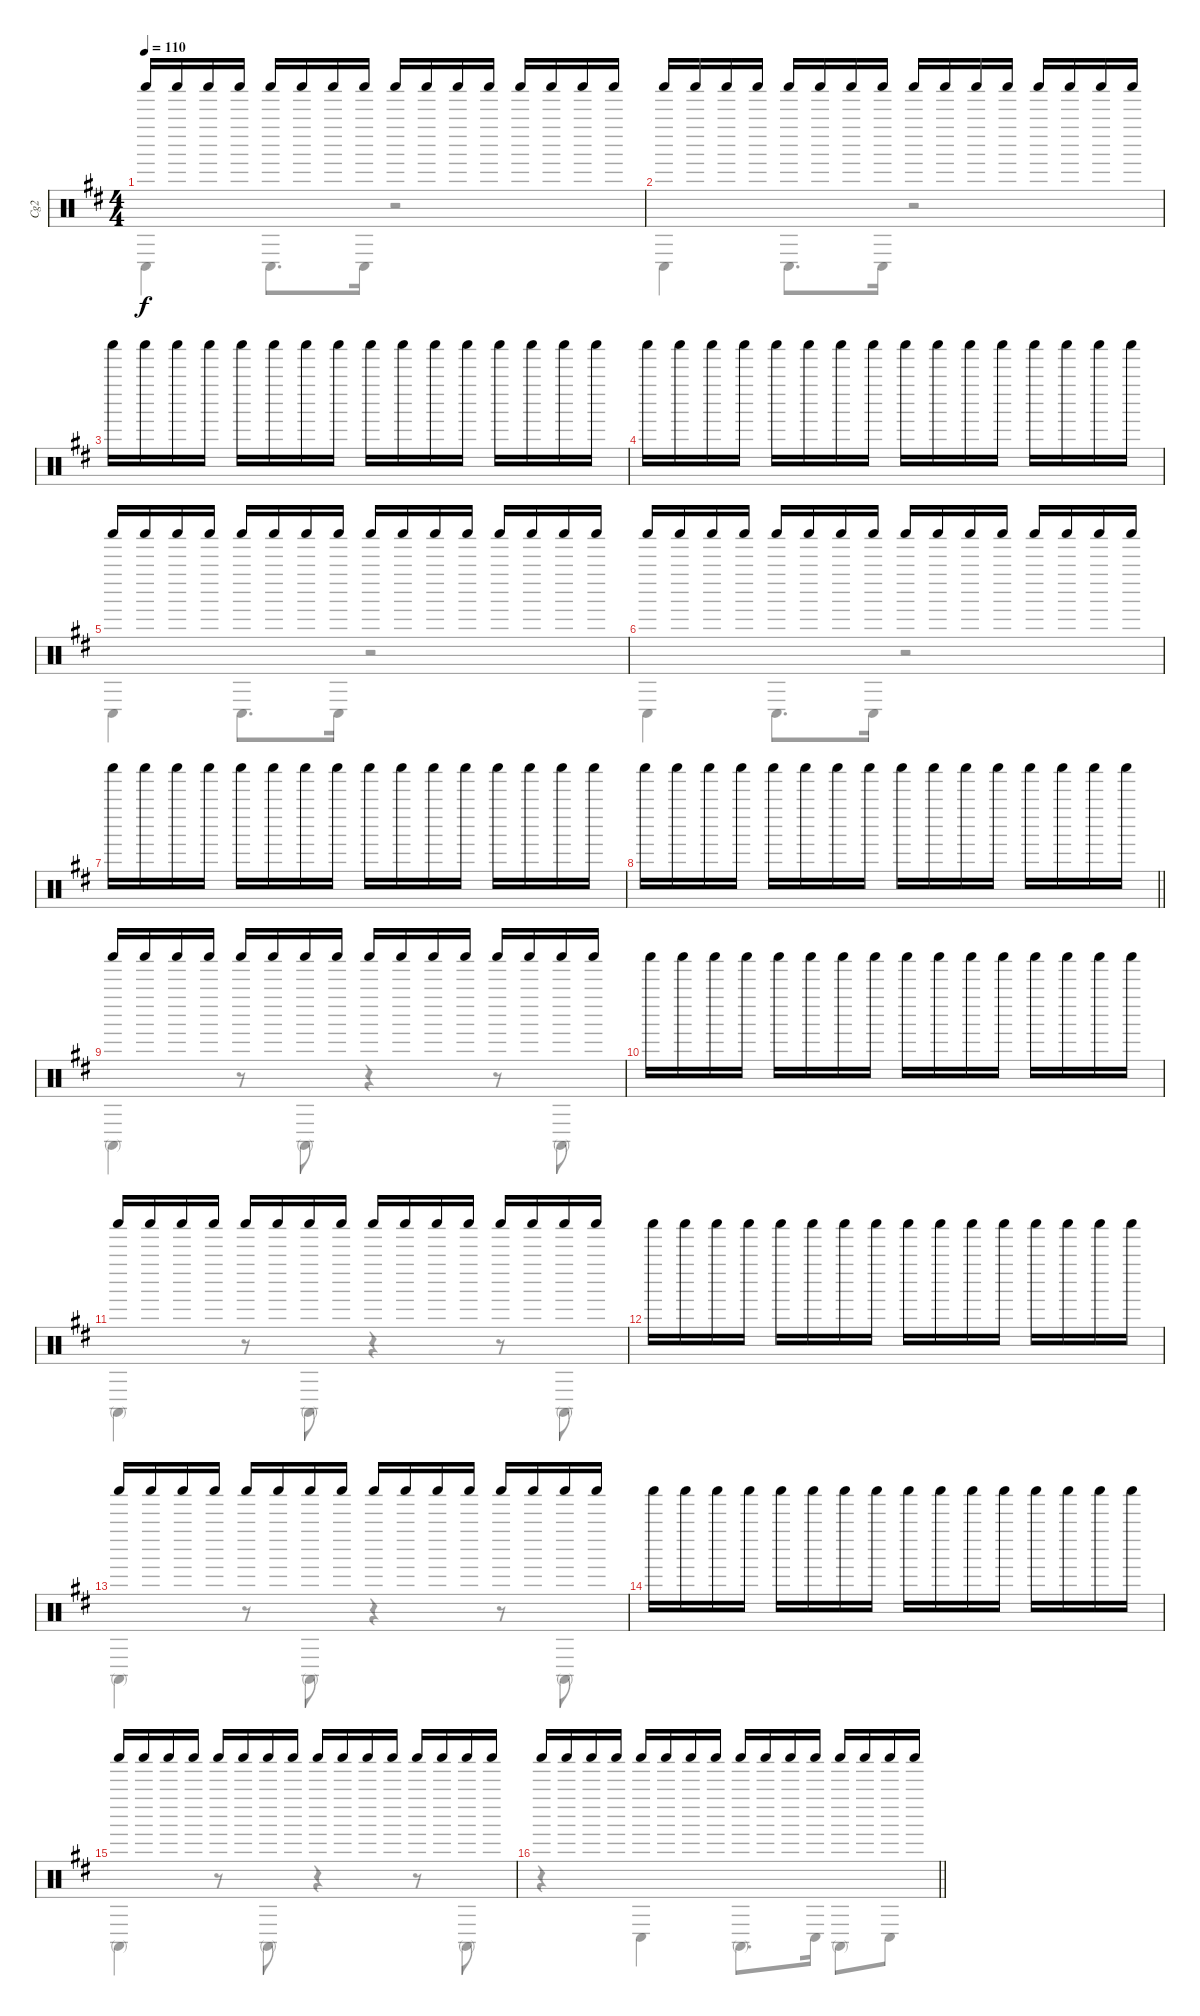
\track ("Cg2" "Cg2") {instrument percussion}
\staff {score}
\articulation defaults
\voice
\ts (4 4)
\tempo 110
\clef neutral
\ks d "Shaker (hit)".16{dy f} "Shaker (hit)".16 "Shaker (hit)".16 "Shaker (hit)".16 "Shaker (hit)".16 "Shaker (hit)".16 "Shaker (hit)".16 "Shaker (hit)".16 "Shaker (hit)".16 "Shaker (hit)".16 "Shaker (hit)".16 "Shaker (hit)".16 "Shaker (hit)".16 "Shaker (hit)".16 "Shaker (hit)".16 "Shaker (hit)".16
|
"Shaker (hit)".16 "Shaker (hit)".16 "Shaker (hit)".16 "Shaker (hit)".16 "Shaker (hit)".16 "Shaker (hit)".16 "Shaker (hit)".16 "Shaker (hit)".16 "Shaker (hit)".16 "Shaker (hit)".16 "Shaker (hit)".16 "Shaker (hit)".16 "Shaker (hit)".16 "Shaker (hit)".16 "Shaker (hit)".16 "Shaker (hit)".16 |
"Shaker (hit)".16 "Shaker (hit)".16 "Shaker (hit)".16 "Shaker (hit)".16 "Shaker (hit)".16 "Shaker (hit)".16 "Shaker (hit)".16 "Shaker (hit)".16 "Shaker (hit)".16 "Shaker (hit)".16 "Shaker (hit)".16 "Shaker (hit)".16 "Shaker (hit)".16 "Shaker (hit)".16 "Shaker (hit)".16 "Shaker (hit)".16 |
"Shaker (hit)".16 "Shaker (hit)".16 "Shaker (hit)".16 "Shaker (hit)".16 "Shaker (hit)".16 "Shaker (hit)".16 "Shaker (hit)".16 "Shaker (hit)".16 "Shaker (hit)".16 "Shaker (hit)".16 "Shaker (hit)".16 "Shaker (hit)".16 "Shaker (hit)".16 "Shaker (hit)".16 "Shaker (hit)".16 "Shaker (hit)".16 |
"Shaker (hit)".16 "Shaker (hit)".16 "Shaker (hit)".16 "Shaker (hit)".16 "Shaker (hit)".16 "Shaker (hit)".16 "Shaker (hit)".16 "Shaker (hit)".16 "Shaker (hit)".16 "Shaker (hit)".16 "Shaker (hit)".16 "Shaker (hit)".16 "Shaker (hit)".16 "Shaker (hit)".16 "Shaker (hit)".16 "Shaker (hit)".16 |
"Shaker (hit)".16 "Shaker (hit)".16 "Shaker (hit)".16 "Shaker (hit)".16 "Shaker (hit)".16 "Shaker (hit)".16 "Shaker (hit)".16 "Shaker (hit)".16 "Shaker (hit)".16 "Shaker (hit)".16 "Shaker (hit)".16 "Shaker (hit)".16 "Shaker (hit)".16 "Shaker (hit)".16 "Shaker (hit)".16 "Shaker (hit)".16 |
"Shaker (hit)".16 "Shaker (hit)".16 "Shaker (hit)".16 "Shaker (hit)".16 "Shaker (hit)".16 "Shaker (hit)".16 "Shaker (hit)".16 "Shaker (hit)".16 "Shaker (hit)".16 "Shaker (hit)".16 "Shaker (hit)".16 "Shaker (hit)".16 "Shaker (hit)".16 "Shaker (hit)".16 "Shaker (hit)".16 "Shaker (hit)".16 |
\barLineRight lightlight "Shaker (hit)".16 "Shaker (hit)".16 "Shaker (hit)".16 "Shaker (hit)".16 "Shaker (hit)".16 "Shaker (hit)".16 "Shaker (hit)".16 "Shaker (hit)".16 "Shaker (hit)".16 "Shaker (hit)".16 "Shaker (hit)".16 "Shaker (hit)".16 "Shaker (hit)".16 "Shaker (hit)".16 "Shaker (hit)".16 "Shaker (hit)".16
|
"Shaker (hit)".16 "Shaker (hit)".16 "Shaker (hit)".16 "Shaker (hit)".16 "Shaker (hit)".16 "Shaker (hit)".16 "Shaker (hit)".16 "Shaker (hit)".16 "Shaker (hit)".16 "Shaker (hit)".16 "Shaker (hit)".16 "Shaker (hit)".16 "Shaker (hit)".16 "Shaker (hit)".16 "Shaker (hit)".16 "Shaker (hit)".16 |
"Shaker (hit)".16 "Shaker (hit)".16 "Shaker (hit)".16 "Shaker (hit)".16 "Shaker (hit)".16 "Shaker (hit)".16 "Shaker (hit)".16 "Shaker (hit)".16 "Shaker (hit)".16 "Shaker (hit)".16 "Shaker (hit)".16 "Shaker (hit)".16 "Shaker (hit)".16 "Shaker (hit)".16 "Shaker (hit)".16 "Shaker (hit)".16 |
"Shaker (hit)".16 "Shaker (hit)".16 "Shaker (hit)".16 "Shaker (hit)".16 "Shaker (hit)".16 "Shaker (hit)".16 "Shaker (hit)".16 "Shaker (hit)".16 "Shaker (hit)".16 "Shaker (hit)".16 "Shaker (hit)".16 "Shaker (hit)".16 "Shaker (hit)".16 "Shaker (hit)".16 "Shaker (hit)".16 "Shaker (hit)".16 |
"Shaker (hit)".16 "Shaker (hit)".16 "Shaker (hit)".16 "Shaker (hit)".16 "Shaker (hit)".16 "Shaker (hit)".16 "Shaker (hit)".16 "Shaker (hit)".16 "Shaker (hit)".16 "Shaker (hit)".16 "Shaker (hit)".16 "Shaker (hit)".16 "Shaker (hit)".16 "Shaker (hit)".16 "Shaker (hit)".16 "Shaker (hit)".16 |
"Shaker (hit)".16 "Shaker (hit)".16 "Shaker (hit)".16 "Shaker (hit)".16 "Shaker (hit)".16 "Shaker (hit)".16 "Shaker (hit)".16 "Shaker (hit)".16 "Shaker (hit)".16 "Shaker (hit)".16 "Shaker (hit)".16 "Shaker (hit)".16 "Shaker (hit)".16 "Shaker (hit)".16 "Shaker (hit)".16 "Shaker (hit)".16 |
"Shaker (hit)".16 "Shaker (hit)".16 "Shaker (hit)".16 "Shaker (hit)".16 "Shaker (hit)".16 "Shaker (hit)".16 "Shaker (hit)".16 "Shaker (hit)".16 "Shaker (hit)".16 "Shaker (hit)".16 "Shaker (hit)".16 "Shaker (hit)".16 "Shaker (hit)".16 "Shaker (hit)".16 "Shaker (hit)".16 "Shaker (hit)".16 |
"Shaker (hit)".16 "Shaker (hit)".16 "Shaker (hit)".16 "Shaker (hit)".16 "Shaker (hit)".16 "Shaker (hit)".16 "Shaker (hit)".16 "Shaker (hit)".16 "Shaker (hit)".16 "Shaker (hit)".16 "Shaker (hit)".16 "Shaker (hit)".16 "Shaker (hit)".16 "Shaker (hit)".16 "Shaker (hit)".16 "Shaker (hit)".16 |
\barLineRight lightlight "Shaker (hit)".16 "Shaker (hit)".16 "Shaker (hit)".16 "Shaker (hit)".16 "Shaker (hit)".16 "Shaker (hit)".16 "Shaker (hit)".16 "Shaker (hit)".16 "Shaker (hit)".16 "Shaker (hit)".16 "Shaker (hit)".16 "Shaker (hit)".16 "Shaker (hit)".16 "Shaker (hit)".16 "Shaker (hit)".16 "Shaker (hit)".16
\voice
\clef neutral
\ottava regular
\simile none
\ks d "Conga low (hit)".4{dy f} "Conga low (hit)".8{d} "Conga low (hit)".16
r.2 |
"Conga low (hit)".4 "Conga low (hit)".8{d} "Conga low (hit)".16 r.2 |
|
|
"Conga low (hit)".4 "Conga low (hit)".8{d} "Conga low (hit)".16 r.2 |
"Conga low (hit)".4 "Conga low (hit)".8{d} "Conga low (hit)".16 r.2 |
|
\barLineRight lightlight
|
"Conga high (mute)".4 r.8 "Conga high (mute)".8 r.4 r.8 "Conga high (mute)".8 |
|
"Conga high (mute)".4 r.8 "Conga high (mute)".8 r.4 r.8 "Conga high (mute)".8 |
|
"Conga high (mute)".4 r.8 "Conga high (mute)".8 r.4 r.8 "Conga high (mute)".8 |
|
"Conga high (mute)".4 r.8 "Conga high (mute)".8 r.4 r.8 "Conga high (mute)".8 |
\barLineRight lightlight
r.4 "Conga low (hit)".4 "Conga high (mute)".8{d} "Conga low (hit)".16 "Conga high (mute)".8 "Conga low (hit)".8
